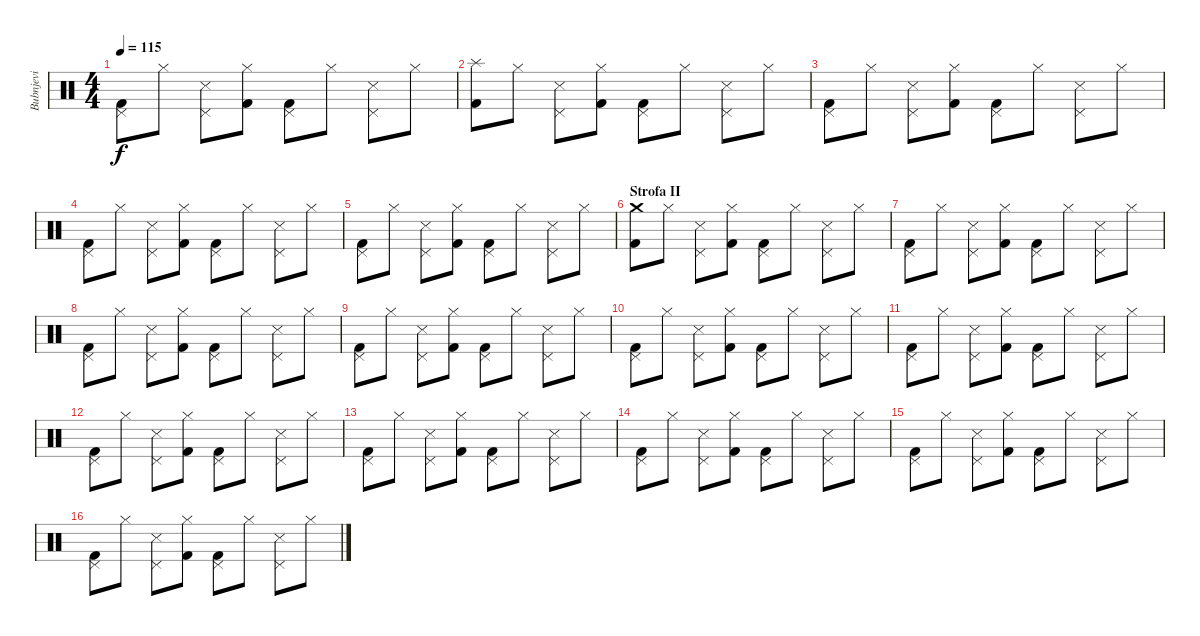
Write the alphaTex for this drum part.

\track ("Bubnjevi" "Bubnjevi") {instrument percussion}
\staff {score}
\articulation defaults
\ts (4 4)
\tempo 115
\clef neutral
\ks c
("Pedal Hi-Hat (hit)" "Kick (hit) 2").8{dy f} "Hi-Hat (closed)".8 ("Pedal Hi-Hat (hit)" "Snare (side stick) 3").8 ("Hi-Hat (closed)" "Kick (hit) 2").8 ("Pedal Hi-Hat (hit)" "Kick (hit) 2").8 "Hi-Hat (closed)".8 ("Pedal Hi-Hat (hit)" "Snare (side stick) 3").8 "Hi-Hat (closed)".8 |
("Splash (hit)" "Kick (hit) 2").8 "Hi-Hat (closed)".8 ("Pedal Hi-Hat (hit)" "Snare (side stick) 3").8 ("Hi-Hat (closed)" "Kick (hit) 2").8 ("Pedal Hi-Hat (hit)" "Kick (hit) 2").8 "Hi-Hat (closed)".8 ("Pedal Hi-Hat (hit)" "Snare (side stick) 3").8 "Hi-Hat (closed)".8 |
("Pedal Hi-Hat (hit)" "Kick (hit) 2").8 "Hi-Hat (closed)".8 ("Pedal Hi-Hat (hit)" "Snare (side stick) 3").8 ("Hi-Hat (closed)" "Kick (hit) 2").8 ("Pedal Hi-Hat (hit)" "Kick (hit) 2").8 "Hi-Hat (closed)".8 ("Pedal Hi-Hat (hit)" "Snare (side stick) 3").8 "Hi-Hat (closed)".8 |
("Pedal Hi-Hat (hit)" "Kick (hit) 2").8 "Hi-Hat (closed)".8 ("Pedal Hi-Hat (hit)" "Snare (side stick) 3").8 ("Hi-Hat (closed)" "Kick (hit) 2").8 ("Pedal Hi-Hat (hit)" "Kick (hit) 2").8 "Hi-Hat (closed)".8 ("Pedal Hi-Hat (hit)" "Snare (side stick) 3").8 "Hi-Hat (closed)".8 |
("Pedal Hi-Hat (hit)" "Kick (hit) 2").8 "Hi-Hat (closed)".8 ("Pedal Hi-Hat (hit)" "Snare (side stick) 3").8 ("Hi-Hat (closed)" "Kick (hit) 2").8 ("Pedal Hi-Hat (hit)" "Kick (hit) 2").8 "Hi-Hat (closed)".8 ("Pedal Hi-Hat (hit)" "Snare (side stick) 3").8 "Hi-Hat (closed)".8 |
\section ("" "Strofa II")
("Crash medium (hit)" "Kick (hit) 2").8 "Hi-Hat (closed)".8 ("Pedal Hi-Hat (hit)" "Snare (side stick) 3").8 ("Hi-Hat (closed)" "Kick (hit) 2").8 ("Pedal Hi-Hat (hit)" "Kick (hit) 2").8 "Hi-Hat (closed)".8 ("Pedal Hi-Hat (hit)" "Snare (side stick) 3").8 "Hi-Hat (closed)".8 |
("Pedal Hi-Hat (hit)" "Kick (hit) 2").8 "Hi-Hat (closed)".8 ("Pedal Hi-Hat (hit)" "Snare (side stick) 3").8 ("Hi-Hat (closed)" "Kick (hit) 2").8 ("Pedal Hi-Hat (hit)" "Kick (hit) 2").8 "Hi-Hat (closed)".8 ("Pedal Hi-Hat (hit)" "Snare (side stick) 3").8 "Hi-Hat (closed)".8 |
("Pedal Hi-Hat (hit)" "Kick (hit) 2").8 "Hi-Hat (closed)".8 ("Pedal Hi-Hat (hit)" "Snare (side stick) 3").8 ("Hi-Hat (closed)" "Kick (hit) 2").8 ("Pedal Hi-Hat (hit)" "Kick (hit) 2").8 "Hi-Hat (closed)".8 ("Pedal Hi-Hat (hit)" "Snare (side stick) 3").8 "Hi-Hat (closed)".8 |
("Pedal Hi-Hat (hit)" "Kick (hit) 2").8 "Hi-Hat (closed)".8 ("Pedal Hi-Hat (hit)" "Snare (side stick) 3").8 ("Hi-Hat (closed)" "Kick (hit) 2").8 ("Pedal Hi-Hat (hit)" "Kick (hit) 2").8 "Hi-Hat (closed)".8 ("Pedal Hi-Hat (hit)" "Snare (side stick) 3").8 "Hi-Hat (closed)".8 |
("Pedal Hi-Hat (hit)" "Kick (hit) 2").8 "Hi-Hat (closed)".8 ("Pedal Hi-Hat (hit)" "Snare (side stick) 3").8 ("Hi-Hat (closed)" "Kick (hit) 2").8 ("Pedal Hi-Hat (hit)" "Kick (hit) 2").8 "Hi-Hat (closed)".8 ("Pedal Hi-Hat (hit)" "Snare (side stick) 3").8 "Hi-Hat (closed)".8 |
("Pedal Hi-Hat (hit)" "Kick (hit) 2").8 "Hi-Hat (closed)".8 ("Pedal Hi-Hat (hit)" "Snare (side stick) 3").8 ("Hi-Hat (closed)" "Kick (hit) 2").8 ("Pedal Hi-Hat (hit)" "Kick (hit) 2").8 "Hi-Hat (closed)".8 ("Pedal Hi-Hat (hit)" "Snare (side stick) 3").8 "Hi-Hat (closed)".8 |
("Pedal Hi-Hat (hit)" "Kick (hit) 2").8 "Hi-Hat (closed)".8 ("Pedal Hi-Hat (hit)" "Snare (side stick) 3").8 ("Hi-Hat (closed)" "Kick (hit) 2").8 ("Pedal Hi-Hat (hit)" "Kick (hit) 2").8 "Hi-Hat (closed)".8 ("Pedal Hi-Hat (hit)" "Snare (side stick) 3").8 "Hi-Hat (closed)".8 |
("Pedal Hi-Hat (hit)" "Kick (hit) 2").8 "Hi-Hat (closed)".8 ("Pedal Hi-Hat (hit)" "Snare (side stick) 3").8 ("Hi-Hat (closed)" "Kick (hit) 2").8 ("Pedal Hi-Hat (hit)" "Kick (hit) 2").8 "Hi-Hat (closed)".8 ("Pedal Hi-Hat (hit)" "Snare (side stick) 3").8 "Hi-Hat (closed)".8 |
("Pedal Hi-Hat (hit)" "Kick (hit) 2").8 "Hi-Hat (closed)".8 ("Pedal Hi-Hat (hit)" "Snare (side stick) 3").8 ("Hi-Hat (closed)" "Kick (hit) 2").8 ("Pedal Hi-Hat (hit)" "Kick (hit) 2").8 "Hi-Hat (closed)".8 ("Pedal Hi-Hat (hit)" "Snare (side stick) 3").8 "Hi-Hat (closed)".8 |
("Pedal Hi-Hat (hit)" "Kick (hit) 2").8 "Hi-Hat (closed)".8 ("Pedal Hi-Hat (hit)" "Snare (side stick) 3").8 ("Hi-Hat (closed)" "Kick (hit) 2").8 ("Pedal Hi-Hat (hit)" "Kick (hit) 2").8 "Hi-Hat (closed)".8 ("Pedal Hi-Hat (hit)" "Snare (side stick) 3").8 "Hi-Hat (closed)".8 |
("Pedal Hi-Hat (hit)" "Kick (hit) 2").8 "Hi-Hat (closed)".8 ("Pedal Hi-Hat (hit)" "Snare (side stick) 3").8 ("Hi-Hat (closed)" "Kick (hit) 2").8 ("Pedal Hi-Hat (hit)" "Kick (hit) 2").8 "Hi-Hat (closed)".8 ("Pedal Hi-Hat (hit)" "Snare (side stick) 3").8 "Hi-Hat (closed)".8
